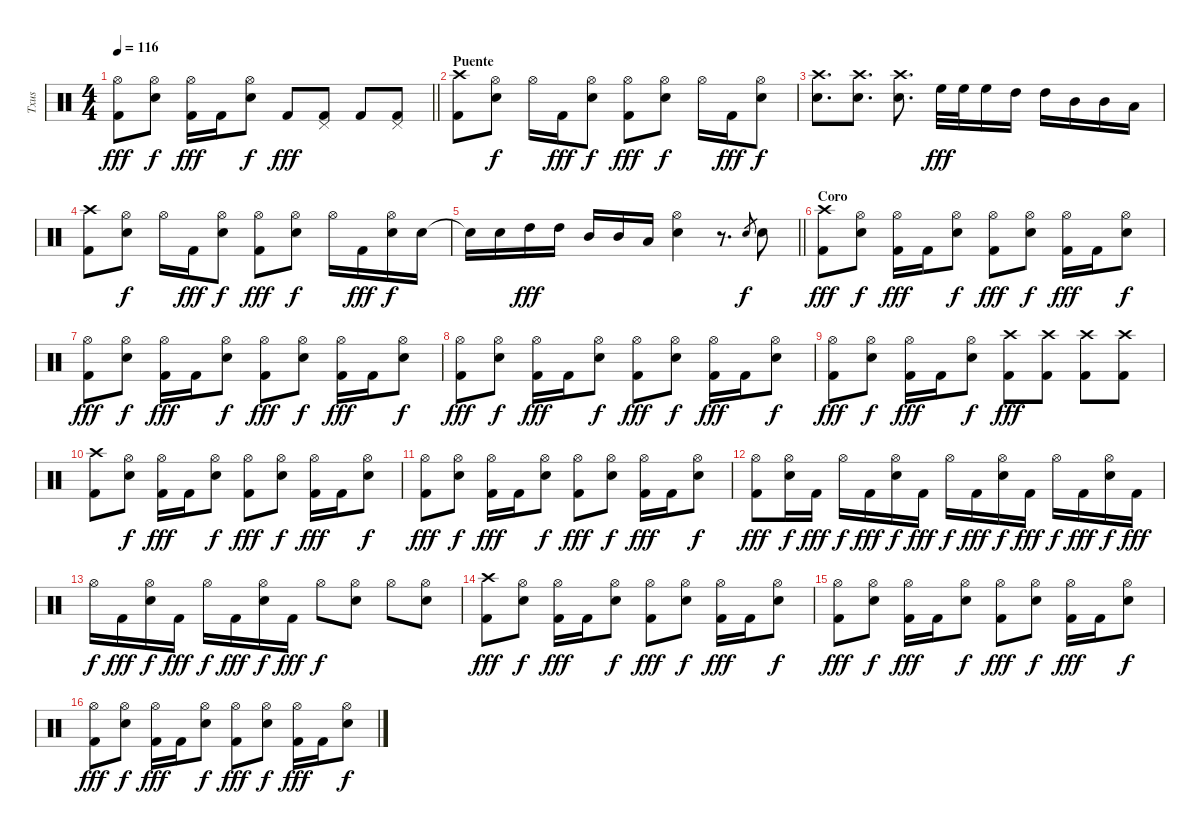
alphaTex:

\track ("Txus" "Txus") {instrument percussion}
\staff {score}
\articulation defaults
\ts (4 4)
\tempo 116
\clef neutral
\barLineRight lightlight
\ks c
("Kick (hit) 2" "Hi-Hat (open)").8{dy fff} ("Electric Snare (hit)" "Hi-Hat (open)").8{dy f} ("Kick (hit) 2" "Hi-Hat (open)").16{dy fff} "Kick (hit) 2".16 ("Electric Snare (hit)" "Hi-Hat (open)").8{dy f} "Kick (hit) 2".8{dy fff} ("Kick (hit) 2" "Pedal Hi-Hat (hit)").8 "Kick (hit) 2".8 ("Kick (hit) 2" "Pedal Hi-Hat (hit)").8 |
\section ("" "Puente")
("Kick (hit) 2" "Crash high (hit)").8 ("Electric Snare (hit)" "Hi-Hat (open)").8{dy f} "Hi-Hat (open)".16 "Kick (hit) 2".16{dy fff} ("Electric Snare (hit)" "Hi-Hat (open)").8{dy f} ("Kick (hit) 2" "Hi-Hat (open)").8{dy fff} ("Electric Snare (hit)" "Hi-Hat (open)").8{dy f} "Hi-Hat (open)".16 "Kick (hit) 2".16{dy fff} ("Electric Snare (hit)" "Hi-Hat (open)").8{dy f} |
("Electric Snare (hit)" "Crash high (hit)").8{d} ("Electric Snare (hit)" "Crash high (hit)").8{d} ("Electric Snare (hit)" "Crash high (hit)").8{d} "High Floor Tom (hit)".32{dy fff} "High Floor Tom (hit)".32 "High Floor Tom (hit)".16 "High Tom (hit)".16 "High Tom (hit)".16 "Mid Tom (hit)".16 "Mid Tom (hit)".16 "Low Tom (hit)".16 |
("Kick (hit) 2" "Crash high (hit)").8 ("Electric Snare (hit)" "Hi-Hat (open)").8{dy f} "Hi-Hat (open)".16 "Kick (hit) 2".16{dy fff} ("Electric Snare (hit)" "Hi-Hat (open)").8{dy f} ("Kick (hit) 2" "Hi-Hat (open)").8{dy fff} ("Electric Snare (hit)" "Hi-Hat (open)").8{dy f} "Hi-Hat (open)".16 "Kick (hit) 2".16{dy fff} ("Electric Snare (hit)" "Hi-Hat (open)").16{dy f} "Electric Snare (hit)".16 |
\barLineRight lightlight "Electric Snare (hit)"{t}.16 "Electric Snare (hit)".16 "High Tom (hit)".16{dy fff} "High Tom (hit)".16 "Mid Tom (hit)".16 "Mid Tom (hit)".16 "Low Tom (hit)".16
("Electric Snare (hit)" "Hi-Hat (open)").4 r.8{d} "Electric Snare (hit)".8{gr dy f} "Electric Snare (hit)".8 |
\section ("" "Coro")
("Kick (hit) 2" "Crash high (hit)").8{dy fff} ("Electric Snare (hit)" "Hi-Hat (open)").8{dy f} ("Kick (hit) 2" "Hi-Hat (open)").16{dy fff} "Kick (hit) 2".16 ("Electric Snare (hit)" "Hi-Hat (open)").8{dy f} ("Kick (hit) 2" "Hi-Hat (open)").8{dy fff} ("Electric Snare (hit)" "Hi-Hat (open)").8{dy f} ("Kick (hit) 2" "Hi-Hat (open)").16{dy fff} "Kick (hit) 2".16 ("Electric Snare (hit)" "Hi-Hat (open)").8{dy f} |
("Kick (hit) 2" "Hi-Hat (open)").8{dy fff} ("Electric Snare (hit)" "Hi-Hat (open)").8{dy f} ("Kick (hit) 2" "Hi-Hat (open)").16{dy fff} "Kick (hit) 2".16 ("Electric Snare (hit)" "Hi-Hat (open)").8{dy f} ("Kick (hit) 2" "Hi-Hat (open)").8{dy fff} ("Electric Snare (hit)" "Hi-Hat (open)").8{dy f} ("Kick (hit) 2" "Hi-Hat (open)").16{dy fff} "Kick (hit) 2".16 ("Electric Snare (hit)" "Hi-Hat (open)").8{dy f} |
("Kick (hit) 2" "Hi-Hat (open)").8{dy fff} ("Electric Snare (hit)" "Hi-Hat (open)").8{dy f} ("Kick (hit) 2" "Hi-Hat (open)").16{dy fff} "Kick (hit) 2".16 ("Electric Snare (hit)" "Hi-Hat (open)").8{dy f} ("Kick (hit) 2" "Hi-Hat (open)").8{dy fff} ("Electric Snare (hit)" "Hi-Hat (open)").8{dy f} ("Kick (hit) 2" "Hi-Hat (open)").16{dy fff} "Kick (hit) 2".16 ("Electric Snare (hit)" "Hi-Hat (open)").8{dy f} |
("Kick (hit) 2" "Hi-Hat (open)").8{dy fff} ("Electric Snare (hit)" "Hi-Hat (open)").8{dy f} ("Kick (hit) 2" "Hi-Hat (open)").16{dy fff} "Kick (hit) 2".16 ("Electric Snare (hit)" "Hi-Hat (open)").8{dy f} ("Kick (hit) 2" "Crash high (hit)").8{dy fff} ("Kick (hit) 2" "Crash high (hit)").8 ("Kick (hit) 2" "Crash high (hit)").8 ("Kick (hit) 2" "Crash high (hit)").8 |
("Kick (hit) 2" "Crash high (hit)").8 ("Electric Snare (hit)" "Hi-Hat (open)").8{dy f} ("Kick (hit) 2" "Hi-Hat (open)").16{dy fff} "Kick (hit) 2".16 ("Electric Snare (hit)" "Hi-Hat (open)").8{dy f} ("Kick (hit) 2" "Hi-Hat (open)").8{dy fff} ("Electric Snare (hit)" "Hi-Hat (open)").8{dy f} ("Kick (hit) 2" "Hi-Hat (open)").16{dy fff} "Kick (hit) 2".16 ("Electric Snare (hit)" "Hi-Hat (open)").8{dy f} |
("Kick (hit) 2" "Hi-Hat (open)").8{dy fff} ("Electric Snare (hit)" "Hi-Hat (open)").8{dy f} ("Kick (hit) 2" "Hi-Hat (open)").16{dy fff} "Kick (hit) 2".16 ("Electric Snare (hit)" "Hi-Hat (open)").8{dy f} ("Kick (hit) 2" "Hi-Hat (open)").8{dy fff} ("Electric Snare (hit)" "Hi-Hat (open)").8{dy f} ("Kick (hit) 2" "Hi-Hat (open)").16{dy fff} "Kick (hit) 2".16 ("Electric Snare (hit)" "Hi-Hat (open)").8{dy f} |
("Kick (hit) 2" "Hi-Hat (open)").8{dy fff} ("Electric Snare (hit)" "Hi-Hat (open)").16{dy f} "Kick (hit) 2".16{dy fff} "Hi-Hat (open)".16{dy f} "Kick (hit) 2".16{dy fff} ("Electric Snare (hit)" "Hi-Hat (open)").16{dy f} "Kick (hit) 2".16{dy fff} "Hi-Hat (open)".16{dy f} "Kick (hit) 2".16{dy fff} ("Electric Snare (hit)" "Hi-Hat (open)").16{dy f} "Kick (hit) 2".16{dy fff} "Hi-Hat (open)".16{dy f} "Kick (hit) 2".16{dy fff} ("Electric Snare (hit)" "Hi-Hat (open)").16{dy f} "Kick (hit) 2".16{dy fff} |
"Hi-Hat (open)".16{dy f} "Kick (hit) 2".16{dy fff} ("Electric Snare (hit)" "Hi-Hat (open)").16{dy f} "Kick (hit) 2".16{dy fff} "Hi-Hat (open)".16{dy f} "Kick (hit) 2".16{dy fff} ("Electric Snare (hit)" "Hi-Hat (open)").16{dy f} "Kick (hit) 2".16{dy fff} "Hi-Hat (open)".8{dy f} ("Electric Snare (hit)" "Hi-Hat (open)").8 "Hi-Hat (open)".8 ("Electric Snare (hit)" "Hi-Hat (open)").8 |
("Kick (hit) 2" "Crash high (hit)").8{dy fff} ("Electric Snare (hit)" "Hi-Hat (open)").8{dy f} ("Kick (hit) 2" "Hi-Hat (open)").16{dy fff} "Kick (hit) 2".16 ("Electric Snare (hit)" "Hi-Hat (open)").8{dy f} ("Kick (hit) 2" "Hi-Hat (open)").8{dy fff} ("Electric Snare (hit)" "Hi-Hat (open)").8{dy f} ("Kick (hit) 2" "Hi-Hat (open)").16{dy fff} "Kick (hit) 2".16 ("Electric Snare (hit)" "Hi-Hat (open)").8{dy f} |
("Kick (hit) 2" "Hi-Hat (open)").8{dy fff} ("Electric Snare (hit)" "Hi-Hat (open)").8{dy f} ("Kick (hit) 2" "Hi-Hat (open)").16{dy fff} "Kick (hit) 2".16 ("Electric Snare (hit)" "Hi-Hat (open)").8{dy f} ("Kick (hit) 2" "Hi-Hat (open)").8{dy fff} ("Electric Snare (hit)" "Hi-Hat (open)").8{dy f} ("Kick (hit) 2" "Hi-Hat (open)").16{dy fff} "Kick (hit) 2".16 ("Electric Snare (hit)" "Hi-Hat (open)").8{dy f} |
("Kick (hit) 2" "Hi-Hat (open)").8{dy fff} ("Electric Snare (hit)" "Hi-Hat (open)").8{dy f} ("Kick (hit) 2" "Hi-Hat (open)").16{dy fff} "Kick (hit) 2".16 ("Electric Snare (hit)" "Hi-Hat (open)").8{dy f} ("Kick (hit) 2" "Hi-Hat (open)").8{dy fff} ("Electric Snare (hit)" "Hi-Hat (open)").8{dy f} ("Kick (hit) 2" "Hi-Hat (open)").16{dy fff} "Kick (hit) 2".16 ("Electric Snare (hit)" "Hi-Hat (open)").8{dy f}
